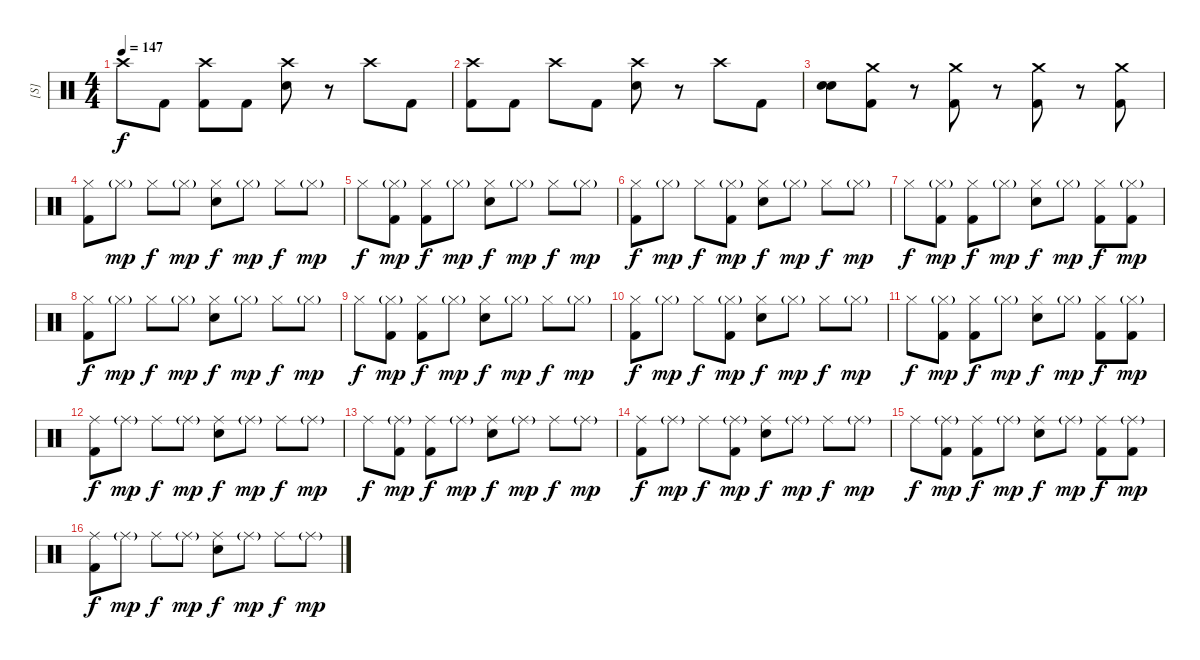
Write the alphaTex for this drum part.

\track ("[S]" "[S]") {instrument percussion}
\staff {score}
\articulation defaults
\ts (4 4)
\tempo 147
\clef neutral
\ks c "Crash high (hit)".8{dy f} "Kick (hit) 2".8
("Crash high (hit)" "Kick (hit) 2").8 "Kick (hit) 2".8 ("Crash high (hit)" "Electric Snare (hit)").8 r.8 "Crash high (hit)".8 "Kick (hit) 2".8 |
("Crash high (hit)" "Kick (hit) 2").8 "Kick (hit) 2".8 "Crash high (hit)".8 "Kick (hit) 2".8 ("Crash high (hit)" "Electric Snare (hit)").8 r.8 "Crash high (hit)".8 "Kick (hit) 2".8 |
("Electric Snare (hit)" "Snare (hit) 2").8 ("Crash medium (hit)" "Kick (hit) 2").8 r.8 ("Crash medium (hit)" "Kick (hit) 2").8 r.8 ("Crash medium (hit)" "Kick (hit) 2").8 r.8 ("Crash medium (hit)" "Kick (hit) 2").8 |
("Hi-Hat (closed)" "Kick (hit) 2").8 "Hi-Hat (closed)"{g}.8{dy mp} "Hi-Hat (closed)".8{dy f} "Hi-Hat (closed)"{g}.8{dy mp} ("Hi-Hat (closed)" "Snare (hit) 2").8{dy f} "Hi-Hat (closed)"{g}.8{dy mp} "Hi-Hat (closed)".8{dy f} "Hi-Hat (closed)"{g}.8{dy mp} |
"Hi-Hat (closed)".8{dy f} ("Hi-Hat (closed)"{g} "Kick (hit) 2").8{dy mp} ("Hi-Hat (closed)" "Kick (hit) 2").8{dy f} "Hi-Hat (closed)"{g}.8{dy mp} ("Hi-Hat (closed)" "Snare (hit) 2").8{dy f} "Hi-Hat (closed)"{g}.8{dy mp} "Hi-Hat (closed)".8{dy f} "Hi-Hat (closed)"{g}.8{dy mp} |
("Hi-Hat (closed)" "Kick (hit) 2").8{dy f} "Hi-Hat (closed)"{g}.8{dy mp} "Hi-Hat (closed)".8{dy f} ("Hi-Hat (closed)"{g} "Kick (hit) 2").8{dy mp} ("Hi-Hat (closed)" "Snare (hit) 2").8{dy f} "Hi-Hat (closed)"{g}.8{dy mp} "Hi-Hat (closed)".8{dy f} "Hi-Hat (closed)"{g}.8{dy mp} |
"Hi-Hat (closed)".8{dy f} ("Hi-Hat (closed)"{g} "Kick (hit) 2").8{dy mp} ("Hi-Hat (closed)" "Kick (hit) 2").8{dy f} "Hi-Hat (closed)"{g}.8{dy mp} ("Hi-Hat (closed)" "Snare (hit) 2").8{dy f} "Hi-Hat (closed)"{g}.8{dy mp} ("Hi-Hat (closed)" "Kick (hit) 2").8{dy f} ("Hi-Hat (closed)"{g} "Kick (hit) 2").8{dy mp} |
("Hi-Hat (closed)" "Kick (hit) 2").8{dy f} "Hi-Hat (closed)"{g}.8{dy mp} "Hi-Hat (closed)".8{dy f} "Hi-Hat (closed)"{g}.8{dy mp} ("Hi-Hat (closed)" "Snare (hit) 2").8{dy f} "Hi-Hat (closed)"{g}.8{dy mp} "Hi-Hat (closed)".8{dy f} "Hi-Hat (closed)"{g}.8{dy mp} |
"Hi-Hat (closed)".8{dy f} ("Hi-Hat (closed)"{g} "Kick (hit) 2").8{dy mp} ("Hi-Hat (closed)" "Kick (hit) 2").8{dy f} "Hi-Hat (closed)"{g}.8{dy mp} ("Hi-Hat (closed)" "Snare (hit) 2").8{dy f} "Hi-Hat (closed)"{g}.8{dy mp} "Hi-Hat (closed)".8{dy f} "Hi-Hat (closed)"{g}.8{dy mp} |
("Hi-Hat (closed)" "Kick (hit) 2").8{dy f} "Hi-Hat (closed)"{g}.8{dy mp} "Hi-Hat (closed)".8{dy f} ("Hi-Hat (closed)"{g} "Kick (hit) 2").8{dy mp} ("Hi-Hat (closed)" "Snare (hit) 2").8{dy f} "Hi-Hat (closed)"{g}.8{dy mp} "Hi-Hat (closed)".8{dy f} "Hi-Hat (closed)"{g}.8{dy mp} |
"Hi-Hat (closed)".8{dy f} ("Hi-Hat (closed)"{g} "Kick (hit) 2").8{dy mp} ("Hi-Hat (closed)" "Kick (hit) 2").8{dy f} "Hi-Hat (closed)"{g}.8{dy mp} ("Hi-Hat (closed)" "Snare (hit) 2").8{dy f} "Hi-Hat (closed)"{g}.8{dy mp} ("Hi-Hat (closed)" "Kick (hit) 2").8{dy f} ("Hi-Hat (closed)"{g} "Kick (hit) 2").8{dy mp} |
("Ride (middle)" "Kick (hit) 2").8{dy f} "Ride (middle)"{g}.8{dy mp} "Ride (middle)".8{dy f} "Ride (middle)"{g}.8{dy mp} ("Ride (middle)" "Snare (hit) 2").8{dy f} "Ride (middle)"{g}.8{dy mp} "Ride (middle)".8{dy f} "Ride (middle)"{g}.8{dy mp} |
"Ride (middle)".8{dy f} ("Ride (middle)"{g} "Kick (hit) 2").8{dy mp} ("Ride (middle)" "Kick (hit) 2").8{dy f} "Ride (middle)"{g}.8{dy mp} ("Ride (middle)" "Snare (hit) 2").8{dy f} "Ride (middle)"{g}.8{dy mp} "Ride (middle)".8{dy f} "Ride (middle)"{g}.8{dy mp} |
("Ride (middle)" "Kick (hit) 2").8{dy f} "Ride (middle)"{g}.8{dy mp} "Ride (middle)".8{dy f} ("Ride (middle)"{g} "Kick (hit) 2").8{dy mp} ("Ride (middle)" "Snare (hit) 2").8{dy f} "Ride (middle)"{g}.8{dy mp} "Ride (middle)".8{dy f} "Ride (middle)"{g}.8{dy mp} |
"Ride (middle)".8{dy f} ("Ride (middle)"{g} "Kick (hit) 2").8{dy mp} ("Ride (middle)" "Kick (hit) 2").8{dy f} "Ride (middle)"{g}.8{dy mp} ("Ride (middle)" "Snare (hit) 2").8{dy f} "Ride (middle)"{g}.8{dy mp} ("Ride (middle)" "Kick (hit) 2").8{dy f} ("Ride (middle)"{g} "Kick (hit) 2").8{dy mp} |
("Ride (middle)" "Kick (hit) 2").8{dy f} "Ride (middle)"{g}.8{dy mp} "Ride (middle)".8{dy f} "Ride (middle)"{g}.8{dy mp} ("Ride (middle)" "Snare (hit) 2").8{dy f} "Ride (middle)"{g}.8{dy mp} "Ride (middle)".8{dy f} "Ride (middle)"{g}.8{dy mp}
